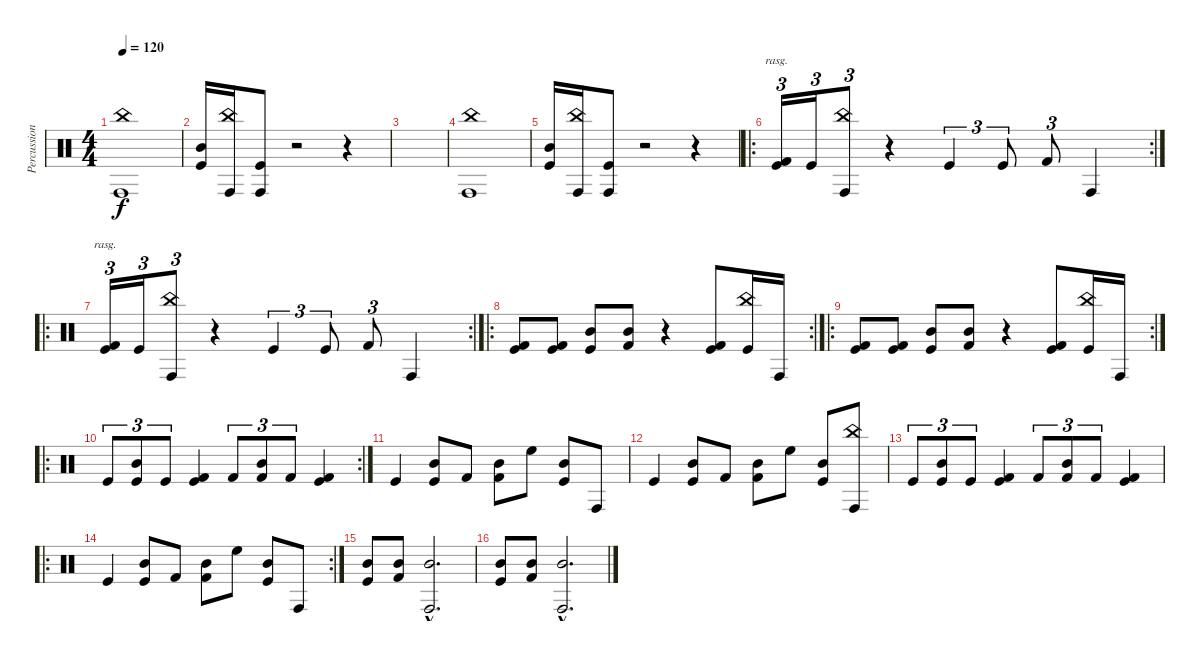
\track ("Percussion" "Percussion") {instrument percussion}
\staff {score}
\articulation defaults
\ts (4 4)
\tempo 120
\clef neutral
\ks c
("China (hit)" "Conga high (hit)").1{dy f} |
("Mid Tom (hit)" "Kick (hit)").16 ("China (hit)" "Conga high (hit)").16 ("Kick (hit)" "Conga high (hit)").8 r.2 r.4 |
|
("China (hit)" "Conga high (hit)").1 |
("Mid Tom (hit)" "Kick (hit)").16 ("China (hit)" "Conga high (hit)").16 ("Kick (hit)" "Conga high (hit)").8 r.2 r.4 |
\ro
\rc 2
("Kick (hit) 2" "Kick (hit)").16{tu (3 2) bd 480 rasg ii} "Kick (hit)".16{tu (3 2)} ("China (hit)" "Conga high (hit)").8{tu (3 2)} r.4 "Kick (hit)".4{tu (3 2)} "Kick (hit)".8{tu (3 2)} "Kick (hit) 2".8{tu (3 2)} "Conga high (hit)".4 |
\ro
\rc 2
("Kick (hit) 2" "Kick (hit)").16{tu (3 2) bd 480 rasg ii} "Kick (hit)".16{tu (3 2)} ("China (hit)" "Conga high (hit)").8{tu (3 2)} r.4 "Kick (hit)".4{tu (3 2)} "Kick (hit)".8{tu (3 2)} "Kick (hit) 2".8{tu (3 2)} "Conga high (hit)".4 |
\ro
\rc 2
("Kick (hit) 2" "Kick (hit)").8{bd 480} ("Kick (hit) 2" "Kick (hit)").8{bd 480} ("Mid Tom (hit)" "Kick (hit)").8 ("Mid Tom (hit)" "Kick (hit) 2").8 r.4 ("Kick (hit) 2" "Kick (hit)").8{bd 480} ("China (hit)" "Kick (hit)").16 "Conga high (hit)".16 |
\ro
\rc 2
("Kick (hit) 2" "Kick (hit)").8{bd 480} ("Kick (hit) 2" "Kick (hit)").8{bd 480} ("Mid Tom (hit)" "Kick (hit)").8 ("Mid Tom (hit)" "Kick (hit) 2").8 r.4 ("Kick (hit) 2" "Kick (hit)").8{bd 480} ("China (hit)" "Kick (hit)").16 "Conga high (hit)".16 |
\ro
\rc 2 "Kick (hit)".8{tu (3 2)}
("Mid Tom (hit)" "Kick (hit)").8{tu (3 2)} "Kick (hit)".8{tu (3 2)} ("Kick (hit) 2" "Kick (hit)").4{bd 480} "Kick (hit) 2".8{tu (3 2)} ("Mid Tom (hit)" "Kick (hit) 2").8{tu (3 2)} "Kick (hit) 2".8{tu (3 2)} ("Kick (hit) 2" "Kick (hit)").4{bd 480} |
"Kick (hit)".4 ("Mid Tom (hit)" "Kick (hit)").8 "Kick (hit) 2".8 ("Mid Tom (hit)" "Kick (hit) 2").8 "High Floor Tom (hit)".8 ("Mid Tom (hit)" "Kick (hit)").8 "Conga high (hit)".8 |
"Kick (hit)".4 ("Mid Tom (hit)" "Kick (hit)").8 "Kick (hit) 2".8 ("Mid Tom (hit)" "Kick (hit) 2").8 "High Floor Tom (hit)".8 ("Mid Tom (hit)" "Kick (hit)").8 ("China (hit)" "Conga high (hit)").8 |
"Kick (hit)".8{tu (3 2)} ("Mid Tom (hit)" "Kick (hit)").8{tu (3 2)} "Kick (hit)".8{tu (3 2)} ("Kick (hit) 2" "Kick (hit)").4{bd 480} "Kick (hit) 2".8{tu (3 2)} ("Mid Tom (hit)" "Kick (hit) 2").8{tu (3 2)} "Kick (hit) 2".8{tu (3 2)} ("Kick (hit) 2" "Kick (hit)").4{bd 480} |
\ro
\rc 2 "Kick (hit)".4
("Mid Tom (hit)" "Kick (hit)").8 "Kick (hit) 2".8 ("Mid Tom (hit)" "Kick (hit) 2").8 "High Floor Tom (hit)".8 ("Mid Tom (hit)" "Kick (hit)").8 "Conga high (hit)".8 |
("Mid Tom (hit)" "Kick (hit)").8 ("Mid Tom (hit)" "Kick (hit) 2").8 ("Conga high (hit)"{hac} "Mid Tom (hit)"{hac}).2{d bd 480} |
("Mid Tom (hit)" "Kick (hit)").8 ("Mid Tom (hit)" "Kick (hit) 2").8 ("Conga high (hit)"{hac} "Mid Tom (hit)"{hac}).2{d bd 480}
